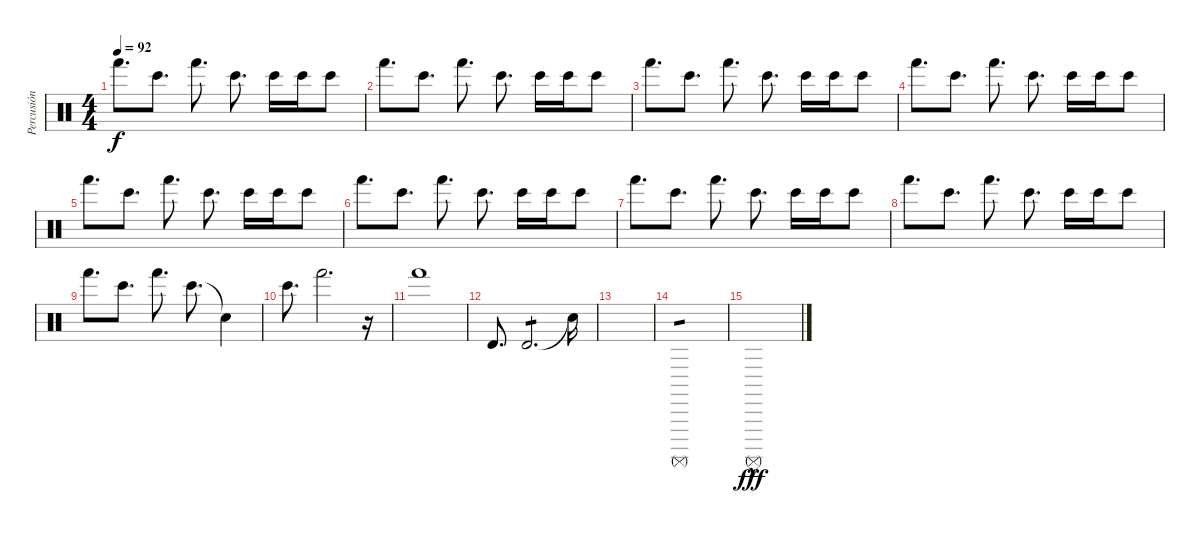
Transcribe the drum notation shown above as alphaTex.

\track ("Percusión" "Percusión") {instrument percussion}
\staff {score}
\articulation defaults
\ts (4 4)
\tempo 92
\clef neutral
\ks c "Hand (hit)".8{d dy f} "Bongo High (hit)".8{d} "Hand (hit)".8{d} "Bongo High (hit)".8{d} "Bongo High (hit)".16 "Bongo High (hit)".16 "Bongo High (hit)".8
|
"Hand (hit)".8{d} "Bongo High (hit)".8{d} "Hand (hit)".8{d} "Bongo High (hit)".8{d} "Bongo High (hit)".16 "Bongo High (hit)".16 "Bongo High (hit)".8 |
"Hand (hit)".8{d} "Bongo High (hit)".8{d} "Hand (hit)".8{d} "Bongo High (hit)".8{d} "Bongo High (hit)".16 "Bongo High (hit)".16 "Bongo High (hit)".8 |
"Hand (hit)".8{d} "Bongo High (hit)".8{d} "Hand (hit)".8{d} "Bongo High (hit)".8{d} "Bongo High (hit)".16 "Bongo High (hit)".16 "Bongo High (hit)".8 |
"Hand (hit)".8{d} "Bongo High (hit)".8{d} "Hand (hit)".8{d} "Bongo High (hit)".8{d} "Bongo High (hit)".16 "Bongo High (hit)".16 "Bongo High (hit)".8 |
"Hand (hit)".8{d} "Bongo High (hit)".8{d} "Hand (hit)".8{d} "Bongo High (hit)".8{d} "Bongo High (hit)".16 "Bongo High (hit)".16 "Bongo High (hit)".8 |
"Hand (hit)".8{d} "Bongo High (hit)".8{d} "Hand (hit)".8{d} "Bongo High (hit)".8{d} "Bongo High (hit)".16 "Bongo High (hit)".16 "Bongo High (hit)".8 |
"Hand (hit)".8{d} "Bongo High (hit)".8{d} "Hand (hit)".8{d} "Bongo High (hit)".8{d} "Bongo High (hit)".16 "Bongo High (hit)".16 "Bongo High (hit)".8 |
"Hand (hit)".8{d} "Bongo High (hit)".8{d} "Hand (hit)".8{d} "Bongo High (hit)".8{d} "Snare (hit)"{t}.4 |
"Bongo High (hit)".8{d} "Hand (hit)".2{d} r.16 |
"Hand (hit)".1 |
"Timbale high (hit)".8{d volume 3} "Timbale high (hit)".2{d tp 1} "Snare (hit)"{t}.16{volume 15} |
|
"Surdo (mute)".1{tp 1 volume 2} |
"Surdo (mute)"{hac}.1{dy fff volume 15}
